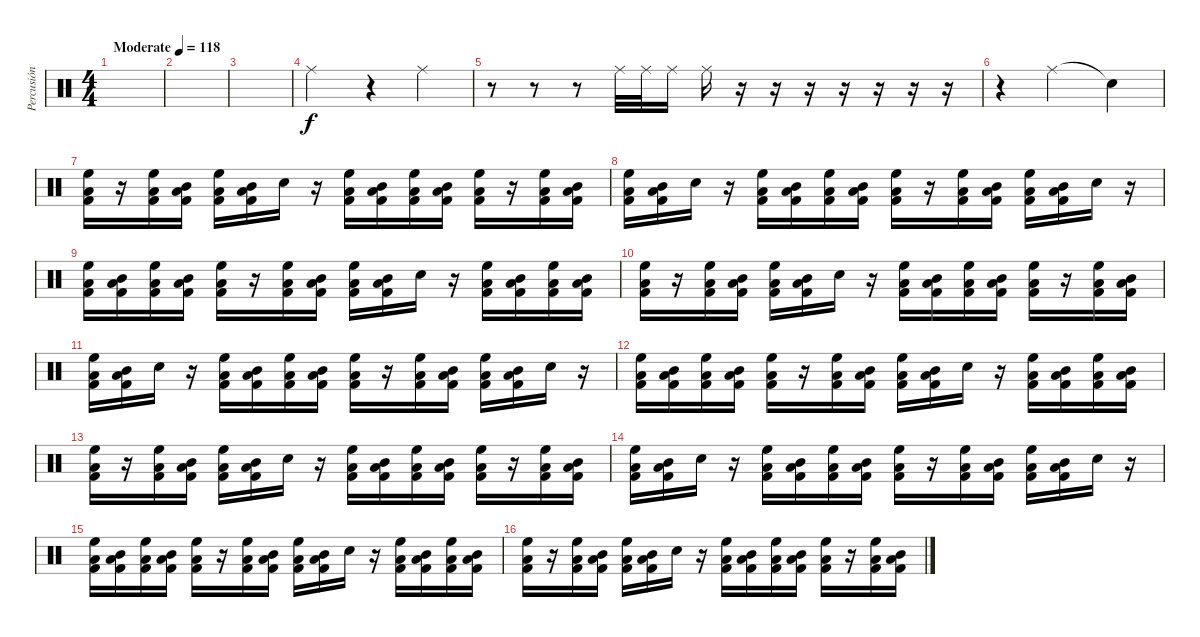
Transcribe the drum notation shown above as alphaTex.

\track ("Percusión" "Percusión") {instrument percussion}
\staff {score}
\articulation defaults
\ts (4 4)
\tempo (118 "Moderate")
\clef neutral
\ks c
|
|
|
"Ride (middle)".2 r.4 "Ride (middle)".4 |
r.8 r.8 r.8 "Ride (middle)".32 "Ride (middle)".32 "Ride (middle)".16 "Ride (middle)".16 r.16 r.16 r.16 r.16 r.16 r.16 r.16 |
r.4 "Ride (middle)".2 "Snare (hit)"{t}.4 |
("High Floor Tom (hit)" "Low Tom (hit)" "Kick (hit) 2").16 r.16 ("High Floor Tom (hit)" "Low Tom (hit)" "Kick (hit) 2").16 ("Mid Tom (hit)" "Low Tom (hit)" "Kick (hit) 2").16 ("High Floor Tom (hit)" "Low Tom (hit)" "Kick (hit) 2").16 ("Mid Tom (hit)" "Low Tom (hit)" "Kick (hit) 2").16 "Snare (hit) 2".16 r.16 ("High Floor Tom (hit)" "Low Tom (hit)" "Kick (hit) 2").16 ("Mid Tom (hit)" "Low Tom (hit)" "Kick (hit) 2").16 ("High Floor Tom (hit)" "Low Tom (hit)" "Kick (hit) 2").16 ("Mid Tom (hit)" "Low Tom (hit)" "Kick (hit) 2").16 ("High Floor Tom (hit)" "Low Tom (hit)" "Kick (hit) 2").16 r.16 ("High Floor Tom (hit)" "Low Tom (hit)" "Kick (hit) 2").16 ("Mid Tom (hit)" "Low Tom (hit)" "Kick (hit) 2").16 |
("High Floor Tom (hit)" "Low Tom (hit)" "Kick (hit) 2").16 ("Mid Tom (hit)" "Low Tom (hit)" "Kick (hit) 2").16 "Snare (hit) 2".16 r.16 ("High Floor Tom (hit)" "Low Tom (hit)" "Kick (hit) 2").16 ("Mid Tom (hit)" "Low Tom (hit)" "Kick (hit) 2").16 ("High Floor Tom (hit)" "Low Tom (hit)" "Kick (hit) 2").16 ("Mid Tom (hit)" "Low Tom (hit)" "Kick (hit) 2").16 ("High Floor Tom (hit)" "Low Tom (hit)" "Kick (hit) 2").16 r.16 ("High Floor Tom (hit)" "Low Tom (hit)" "Kick (hit) 2").16 ("Mid Tom (hit)" "Low Tom (hit)" "Kick (hit) 2").16 ("High Floor Tom (hit)" "Low Tom (hit)" "Kick (hit) 2").16 ("Mid Tom (hit)" "Low Tom (hit)" "Kick (hit) 2").16 "Snare (hit) 2".16 r.16 |
("High Floor Tom (hit)" "Low Tom (hit)" "Kick (hit) 2").16 ("Mid Tom (hit)" "Low Tom (hit)" "Kick (hit) 2").16 ("High Floor Tom (hit)" "Low Tom (hit)" "Kick (hit) 2").16 ("Mid Tom (hit)" "Low Tom (hit)" "Kick (hit) 2").16 ("High Floor Tom (hit)" "Low Tom (hit)" "Kick (hit) 2").16 r.16 ("High Floor Tom (hit)" "Low Tom (hit)" "Kick (hit) 2").16 ("Mid Tom (hit)" "Low Tom (hit)" "Kick (hit) 2").16 ("High Floor Tom (hit)" "Low Tom (hit)" "Kick (hit) 2").16 ("Mid Tom (hit)" "Low Tom (hit)" "Kick (hit) 2").16 "Snare (hit) 2".16 r.16 ("High Floor Tom (hit)" "Low Tom (hit)" "Kick (hit) 2").16 ("Mid Tom (hit)" "Low Tom (hit)" "Kick (hit) 2").16 ("High Floor Tom (hit)" "Low Tom (hit)" "Kick (hit) 2").16 ("Mid Tom (hit)" "Low Tom (hit)" "Kick (hit) 2").16 |
("High Floor Tom (hit)" "Low Tom (hit)" "Kick (hit) 2").16 r.16 ("High Floor Tom (hit)" "Low Tom (hit)" "Kick (hit) 2").16 ("Mid Tom (hit)" "Low Tom (hit)" "Kick (hit) 2").16 ("High Floor Tom (hit)" "Low Tom (hit)" "Kick (hit) 2").16 ("Mid Tom (hit)" "Low Tom (hit)" "Kick (hit) 2").16 "Snare (hit) 2".16 r.16 ("High Floor Tom (hit)" "Low Tom (hit)" "Kick (hit) 2").16 ("Mid Tom (hit)" "Low Tom (hit)" "Kick (hit) 2").16 ("High Floor Tom (hit)" "Low Tom (hit)" "Kick (hit) 2").16 ("Mid Tom (hit)" "Low Tom (hit)" "Kick (hit) 2").16 ("High Floor Tom (hit)" "Low Tom (hit)" "Kick (hit) 2").16 r.16 ("High Floor Tom (hit)" "Low Tom (hit)" "Kick (hit) 2").16 ("Mid Tom (hit)" "Low Tom (hit)" "Kick (hit) 2").16 |
("High Floor Tom (hit)" "Low Tom (hit)" "Kick (hit) 2").16 ("Mid Tom (hit)" "Low Tom (hit)" "Kick (hit) 2").16 "Snare (hit) 2".16 r.16 ("High Floor Tom (hit)" "Low Tom (hit)" "Kick (hit) 2").16 ("Mid Tom (hit)" "Low Tom (hit)" "Kick (hit) 2").16 ("High Floor Tom (hit)" "Low Tom (hit)" "Kick (hit) 2").16 ("Mid Tom (hit)" "Low Tom (hit)" "Kick (hit) 2").16 ("High Floor Tom (hit)" "Low Tom (hit)" "Kick (hit) 2").16 r.16 ("High Floor Tom (hit)" "Low Tom (hit)" "Kick (hit) 2").16 ("Mid Tom (hit)" "Low Tom (hit)" "Kick (hit) 2").16 ("High Floor Tom (hit)" "Low Tom (hit)" "Kick (hit) 2").16 ("Mid Tom (hit)" "Low Tom (hit)" "Kick (hit) 2").16 "Snare (hit) 2".16 r.16 |
("High Floor Tom (hit)" "Low Tom (hit)" "Kick (hit) 2").16 ("Mid Tom (hit)" "Low Tom (hit)" "Kick (hit) 2").16 ("High Floor Tom (hit)" "Low Tom (hit)" "Kick (hit) 2").16 ("Mid Tom (hit)" "Low Tom (hit)" "Kick (hit) 2").16 ("High Floor Tom (hit)" "Low Tom (hit)" "Kick (hit) 2").16 r.16 ("High Floor Tom (hit)" "Low Tom (hit)" "Kick (hit) 2").16 ("Mid Tom (hit)" "Low Tom (hit)" "Kick (hit) 2").16 ("High Floor Tom (hit)" "Low Tom (hit)" "Kick (hit) 2").16 ("Mid Tom (hit)" "Low Tom (hit)" "Kick (hit) 2").16 "Snare (hit) 2".16 r.16 ("High Floor Tom (hit)" "Low Tom (hit)" "Kick (hit) 2").16 ("Mid Tom (hit)" "Low Tom (hit)" "Kick (hit) 2").16 ("High Floor Tom (hit)" "Low Tom (hit)" "Kick (hit) 2").16 ("Mid Tom (hit)" "Low Tom (hit)" "Kick (hit) 2").16 |
("High Floor Tom (hit)" "Low Tom (hit)" "Kick (hit) 2").16 r.16 ("High Floor Tom (hit)" "Low Tom (hit)" "Kick (hit) 2").16 ("Mid Tom (hit)" "Low Tom (hit)" "Kick (hit) 2").16 ("High Floor Tom (hit)" "Low Tom (hit)" "Kick (hit) 2").16 ("Mid Tom (hit)" "Low Tom (hit)" "Kick (hit) 2").16 "Snare (hit) 2".16 r.16 ("High Floor Tom (hit)" "Low Tom (hit)" "Kick (hit) 2").16 ("Mid Tom (hit)" "Low Tom (hit)" "Kick (hit) 2").16 ("High Floor Tom (hit)" "Low Tom (hit)" "Kick (hit) 2").16 ("Mid Tom (hit)" "Low Tom (hit)" "Kick (hit) 2").16 ("High Floor Tom (hit)" "Low Tom (hit)" "Kick (hit) 2").16 r.16 ("High Floor Tom (hit)" "Low Tom (hit)" "Kick (hit) 2").16 ("Mid Tom (hit)" "Low Tom (hit)" "Kick (hit) 2").16 |
("High Floor Tom (hit)" "Low Tom (hit)" "Kick (hit) 2").16 ("Mid Tom (hit)" "Low Tom (hit)" "Kick (hit) 2").16 "Snare (hit) 2".16 r.16 ("High Floor Tom (hit)" "Low Tom (hit)" "Kick (hit) 2").16 ("Mid Tom (hit)" "Low Tom (hit)" "Kick (hit) 2").16 ("High Floor Tom (hit)" "Low Tom (hit)" "Kick (hit) 2").16 ("Mid Tom (hit)" "Low Tom (hit)" "Kick (hit) 2").16 ("High Floor Tom (hit)" "Low Tom (hit)" "Kick (hit) 2").16 r.16 ("High Floor Tom (hit)" "Low Tom (hit)" "Kick (hit) 2").16 ("Mid Tom (hit)" "Low Tom (hit)" "Kick (hit) 2").16 ("High Floor Tom (hit)" "Low Tom (hit)" "Kick (hit) 2").16 ("Mid Tom (hit)" "Low Tom (hit)" "Kick (hit) 2").16 "Snare (hit) 2".16 r.16 |
("High Floor Tom (hit)" "Low Tom (hit)" "Kick (hit) 2").16 ("Mid Tom (hit)" "Low Tom (hit)" "Kick (hit) 2").16 ("High Floor Tom (hit)" "Low Tom (hit)" "Kick (hit) 2").16 ("Mid Tom (hit)" "Low Tom (hit)" "Kick (hit) 2").16 ("High Floor Tom (hit)" "Low Tom (hit)" "Kick (hit) 2").16 r.16 ("High Floor Tom (hit)" "Low Tom (hit)" "Kick (hit) 2").16 ("Mid Tom (hit)" "Low Tom (hit)" "Kick (hit) 2").16 ("High Floor Tom (hit)" "Low Tom (hit)" "Kick (hit) 2").16 ("Mid Tom (hit)" "Low Tom (hit)" "Kick (hit) 2").16 "Snare (hit) 2".16 r.16 ("High Floor Tom (hit)" "Low Tom (hit)" "Kick (hit) 2").16 ("Mid Tom (hit)" "Low Tom (hit)" "Kick (hit) 2").16 ("High Floor Tom (hit)" "Low Tom (hit)" "Kick (hit) 2").16 ("Mid Tom (hit)" "Low Tom (hit)" "Kick (hit) 2").16 |
("High Floor Tom (hit)" "Low Tom (hit)" "Kick (hit) 2").16 r.16 ("High Floor Tom (hit)" "Low Tom (hit)" "Kick (hit) 2").16 ("Mid Tom (hit)" "Low Tom (hit)" "Kick (hit) 2").16 ("High Floor Tom (hit)" "Low Tom (hit)" "Kick (hit) 2").16 ("Mid Tom (hit)" "Low Tom (hit)" "Kick (hit) 2").16 "Snare (hit) 2".16 r.16 ("High Floor Tom (hit)" "Low Tom (hit)" "Kick (hit) 2").16 ("Mid Tom (hit)" "Low Tom (hit)" "Kick (hit) 2").16 ("High Floor Tom (hit)" "Low Tom (hit)" "Kick (hit) 2").16 ("Mid Tom (hit)" "Low Tom (hit)" "Kick (hit) 2").16 ("High Floor Tom (hit)" "Low Tom (hit)" "Kick (hit) 2").16 r.16 ("High Floor Tom (hit)" "Low Tom (hit)" "Kick (hit) 2").16 ("Mid Tom (hit)" "Low Tom (hit)" "Kick (hit) 2").16
